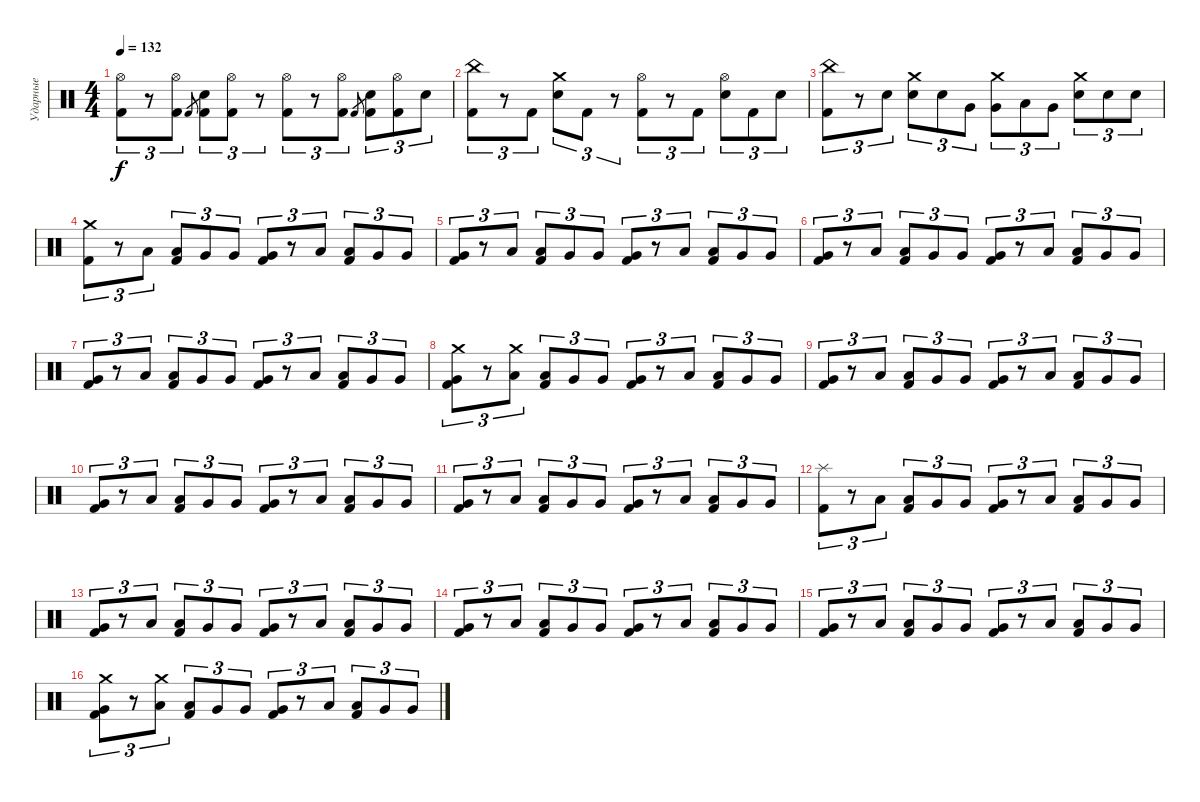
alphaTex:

\track ("Ударные" "Ударные") {instrument percussion}
\staff {score}
\articulation defaults
\ts (4 4)
\tempo 132
\clef neutral
\ks c
("Hi-Hat (open)" "Kick (hit) 2").8{tu (3 2) dy f} r.8{tu (3 2)} ("Hi-Hat (open)" "Kick (hit) 2").8{tu (3 2)} "Kick (hit) 2".8{gr} ("Snare (hit) 2" "Kick (hit) 2").8{tu (3 2)} ("Hi-Hat (open)" "Kick (hit) 2").8{tu (3 2)} r.8{tu (3 2)} ("Hi-Hat (open)" "Kick (hit) 2").8{tu (3 2)} r.8{tu (3 2)} ("Hi-Hat (open)" "Kick (hit) 2").8{tu (3 2)} "Kick (hit) 2".8{gr} ("Snare (hit) 2" "Kick (hit) 2").8{tu (3 2)} ("Hi-Hat (open)" "Kick (hit) 2").8{tu (3 2)} "Snare (hit) 2".8{tu (3 2)} |
("China (hit)" "Kick (hit) 2").8{tu (3 2)} r.8{tu (3 2)} "Kick (hit) 2".8{tu (3 2)} ("Crash medium (hit)" "Snare (hit) 2").8{tu (3 2)} "Kick (hit) 2".8{tu (3 2)} r.8{tu (3 2)} ("Hi-Hat (open)" "Kick (hit) 2").8{tu (3 2)} r.8{tu (3 2)} "Kick (hit) 2".8{tu (3 2)} ("Hi-Hat (open)" "Snare (hit) 2").8{tu (3 2)} "Kick (hit) 2".8{tu (3 2)} "Snare (hit) 2".8{tu (3 2)} |
("China (hit)" "Kick (hit) 2").8{tu (3 2)} r.8{tu (3 2)} "Snare (hit) 2".8{tu (3 2)} ("Crash medium (hit)" "Snare (hit) 2").8{tu (3 2)} "Snare (hit) 2".8{tu (3 2)} "Very Low Tom (hit)".8{tu (3 2)} ("Crash medium (hit)" "Very Low Tom (hit)").8{tu (3 2)} "Low Tom (hit)".8{tu (3 2)} "Very Low Tom (hit)".8{tu (3 2)} ("Crash medium (hit)" "Snare (hit) 2").8{tu (3 2)} "Snare (hit) 2".8{tu (3 2)} "Snare (hit) 2".8{tu (3 2)} |
("Crash medium (hit)" "Kick (hit) 2").8{tu (3 2)} r.8{tu (3 2)} "Low Tom (hit)".8{tu (3 2)} ("Low Tom (hit)" "Kick (hit) 2").8{tu (3 2)} "Very Low Tom (hit)".8{tu (3 2)} "Very Low Tom (hit)".8{tu (3 2)} ("Very Low Tom (hit)" "Kick (hit) 2").8{tu (3 2)} r.8{tu (3 2)} "Low Tom (hit)".8{tu (3 2)} ("Low Tom (hit)" "Kick (hit) 2").8{tu (3 2)} "Very Low Tom (hit)".8{tu (3 2)} "Very Low Tom (hit)".8{tu (3 2)} |
("Very Low Tom (hit)" "Kick (hit) 2").8{tu (3 2)} r.8{tu (3 2)} "Low Tom (hit)".8{tu (3 2)} ("Low Tom (hit)" "Kick (hit) 2").8{tu (3 2)} "Very Low Tom (hit)".8{tu (3 2)} "Very Low Tom (hit)".8{tu (3 2)} ("Very Low Tom (hit)" "Kick (hit) 2").8{tu (3 2)} r.8{tu (3 2)} "Low Tom (hit)".8{tu (3 2)} ("Low Tom (hit)" "Kick (hit) 2").8{tu (3 2)} "Very Low Tom (hit)".8{tu (3 2)} "Very Low Tom (hit)".8{tu (3 2)} |
("Very Low Tom (hit)" "Kick (hit) 2").8{tu (3 2)} r.8{tu (3 2)} "Low Tom (hit)".8{tu (3 2)} ("Low Tom (hit)" "Kick (hit) 2").8{tu (3 2)} "Very Low Tom (hit)".8{tu (3 2)} "Very Low Tom (hit)".8{tu (3 2)} ("Very Low Tom (hit)" "Kick (hit) 2").8{tu (3 2)} r.8{tu (3 2)} "Low Tom (hit)".8{tu (3 2)} ("Low Tom (hit)" "Kick (hit) 2").8{tu (3 2)} "Very Low Tom (hit)".8{tu (3 2)} "Very Low Tom (hit)".8{tu (3 2)} |
("Very Low Tom (hit)" "Kick (hit) 2").8{tu (3 2)} r.8{tu (3 2)} "Low Tom (hit)".8{tu (3 2)} ("Low Tom (hit)" "Kick (hit) 2").8{tu (3 2)} "Very Low Tom (hit)".8{tu (3 2)} "Very Low Tom (hit)".8{tu (3 2)} ("Very Low Tom (hit)" "Kick (hit) 2").8{tu (3 2)} r.8{tu (3 2)} "Low Tom (hit)".8{tu (3 2)} ("Low Tom (hit)" "Kick (hit) 2").8{tu (3 2)} "Very Low Tom (hit)".8{tu (3 2)} "Very Low Tom (hit)".8{tu (3 2)} |
("Crash medium (hit)" "Very Low Tom (hit)" "Kick (hit) 2").8{tu (3 2)} r.8{tu (3 2)} ("Crash medium (hit)" "Low Tom (hit)").8{tu (3 2)} ("Low Tom (hit)" "Kick (hit) 2").8{tu (3 2)} "Very Low Tom (hit)".8{tu (3 2)} "Very Low Tom (hit)".8{tu (3 2)} ("Very Low Tom (hit)" "Kick (hit) 2").8{tu (3 2)} r.8{tu (3 2)} "Low Tom (hit)".8{tu (3 2)} ("Low Tom (hit)" "Kick (hit) 2").8{tu (3 2)} "Very Low Tom (hit)".8{tu (3 2)} "Very Low Tom (hit)".8{tu (3 2)} |
("Very Low Tom (hit)" "Kick (hit) 2").8{tu (3 2)} r.8{tu (3 2)} "Low Tom (hit)".8{tu (3 2)} ("Low Tom (hit)" "Kick (hit) 2").8{tu (3 2)} "Very Low Tom (hit)".8{tu (3 2)} "Very Low Tom (hit)".8{tu (3 2)} ("Very Low Tom (hit)" "Kick (hit) 2").8{tu (3 2)} r.8{tu (3 2)} "Low Tom (hit)".8{tu (3 2)} ("Low Tom (hit)" "Kick (hit) 2").8{tu (3 2)} "Very Low Tom (hit)".8{tu (3 2)} "Very Low Tom (hit)".8{tu (3 2)} |
("Very Low Tom (hit)" "Kick (hit) 2").8{tu (3 2)} r.8{tu (3 2)} "Low Tom (hit)".8{tu (3 2)} ("Low Tom (hit)" "Kick (hit) 2").8{tu (3 2)} "Very Low Tom (hit)".8{tu (3 2)} "Very Low Tom (hit)".8{tu (3 2)} ("Very Low Tom (hit)" "Kick (hit) 2").8{tu (3 2)} r.8{tu (3 2)} "Low Tom (hit)".8{tu (3 2)} ("Low Tom (hit)" "Kick (hit) 2").8{tu (3 2)} "Very Low Tom (hit)".8{tu (3 2)} "Very Low Tom (hit)".8{tu (3 2)} |
("Very Low Tom (hit)" "Kick (hit) 2").8{tu (3 2)} r.8{tu (3 2)} "Low Tom (hit)".8{tu (3 2)} ("Low Tom (hit)" "Kick (hit) 2").8{tu (3 2)} "Very Low Tom (hit)".8{tu (3 2)} "Very Low Tom (hit)".8{tu (3 2)} ("Very Low Tom (hit)" "Kick (hit) 2").8{tu (3 2)} r.8{tu (3 2)} "Low Tom (hit)".8{tu (3 2)} ("Low Tom (hit)" "Kick (hit) 2").8{tu (3 2)} "Very Low Tom (hit)".8{tu (3 2)} "Very Low Tom (hit)".8{tu (3 2)} |
("Splash (hit)" "Kick (hit) 2").8{tu (3 2)} r.8{tu (3 2)} "Low Tom (hit)".8{tu (3 2)} ("Low Tom (hit)" "Kick (hit) 2").8{tu (3 2)} "Very Low Tom (hit)".8{tu (3 2)} "Very Low Tom (hit)".8{tu (3 2)} ("Very Low Tom (hit)" "Kick (hit) 2").8{tu (3 2)} r.8{tu (3 2)} "Low Tom (hit)".8{tu (3 2)} ("Low Tom (hit)" "Kick (hit) 2").8{tu (3 2)} "Very Low Tom (hit)".8{tu (3 2)} "Very Low Tom (hit)".8{tu (3 2)} |
("Very Low Tom (hit)" "Kick (hit) 2").8{tu (3 2)} r.8{tu (3 2)} "Low Tom (hit)".8{tu (3 2)} ("Low Tom (hit)" "Kick (hit) 2").8{tu (3 2)} "Very Low Tom (hit)".8{tu (3 2)} "Very Low Tom (hit)".8{tu (3 2)} ("Very Low Tom (hit)" "Kick (hit) 2").8{tu (3 2)} r.8{tu (3 2)} "Low Tom (hit)".8{tu (3 2)} ("Low Tom (hit)" "Kick (hit) 2").8{tu (3 2)} "Very Low Tom (hit)".8{tu (3 2)} "Very Low Tom (hit)".8{tu (3 2)} |
("Very Low Tom (hit)" "Kick (hit) 2").8{tu (3 2)} r.8{tu (3 2)} "Low Tom (hit)".8{tu (3 2)} ("Low Tom (hit)" "Kick (hit) 2").8{tu (3 2)} "Very Low Tom (hit)".8{tu (3 2)} "Very Low Tom (hit)".8{tu (3 2)} ("Very Low Tom (hit)" "Kick (hit) 2").8{tu (3 2)} r.8{tu (3 2)} "Low Tom (hit)".8{tu (3 2)} ("Low Tom (hit)" "Kick (hit) 2").8{tu (3 2)} "Very Low Tom (hit)".8{tu (3 2)} "Very Low Tom (hit)".8{tu (3 2)} |
("Very Low Tom (hit)" "Kick (hit) 2").8{tu (3 2)} r.8{tu (3 2)} "Low Tom (hit)".8{tu (3 2)} ("Low Tom (hit)" "Kick (hit) 2").8{tu (3 2)} "Very Low Tom (hit)".8{tu (3 2)} "Very Low Tom (hit)".8{tu (3 2)} ("Very Low Tom (hit)" "Kick (hit) 2").8{tu (3 2)} r.8{tu (3 2)} "Low Tom (hit)".8{tu (3 2)} ("Low Tom (hit)" "Kick (hit) 2").8{tu (3 2)} "Very Low Tom (hit)".8{tu (3 2)} "Very Low Tom (hit)".8{tu (3 2)} |
("Crash medium (hit)" "Very Low Tom (hit)" "Kick (hit) 2").8{tu (3 2)} r.8{tu (3 2)} ("Crash medium (hit)" "Low Tom (hit)").8{tu (3 2)} ("Low Tom (hit)" "Kick (hit) 2").8{tu (3 2)} "Very Low Tom (hit)".8{tu (3 2)} "Very Low Tom (hit)".8{tu (3 2)} ("Very Low Tom (hit)" "Kick (hit) 2").8{tu (3 2)} r.8{tu (3 2)} "Low Tom (hit)".8{tu (3 2)} ("Low Tom (hit)" "Kick (hit) 2").8{tu (3 2)} "Very Low Tom (hit)".8{tu (3 2)} "Very Low Tom (hit)".8{tu (3 2)}
